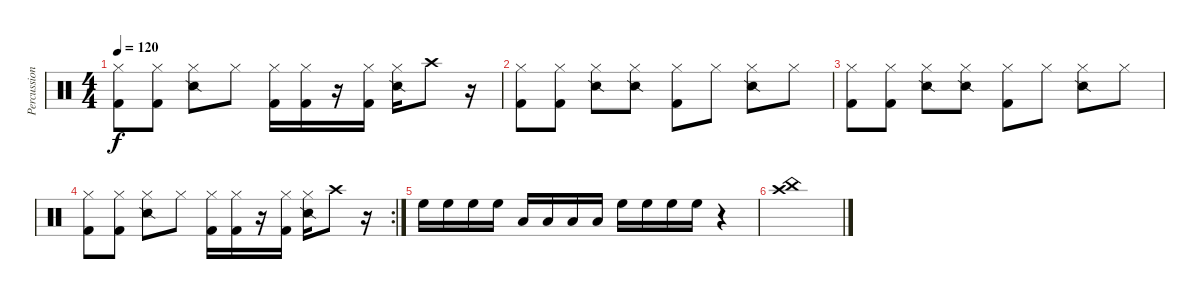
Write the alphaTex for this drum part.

\track ("Percussion" "Percussion") {instrument percussion}
\staff {score}
\articulation defaults
\ts (4 4)
\tempo 120
\clef neutral
\ks c
("Hi-Hat (closed)" "Kick (hit) 2").8{dy f} ("Hi-Hat (closed)" "Kick (hit) 2").8 ("Hi-Hat (closed)" "Snare (side stick) 2").8 "Hi-Hat (closed)".8 ("Hi-Hat (closed)" "Kick (hit) 2").16 ("Hi-Hat (closed)" "Kick (hit) 2").16 r.16 ("Hi-Hat (closed)" "Kick (hit) 2").16 ("Hi-Hat (closed)" "Snare (side stick) 2").16 "Crash high (hit)".8 r.16 |
("Hi-Hat (closed)" "Kick (hit) 2").8 ("Hi-Hat (closed)" "Kick (hit) 2").8 ("Hi-Hat (closed)" "Snare (side stick) 2").8 ("Hi-Hat (closed)" "Snare (side stick) 2").8 ("Hi-Hat (closed)" "Kick (hit) 2").8 "Hi-Hat (closed)".8 ("Hi-Hat (closed)" "Snare (side stick) 2").8 "Hi-Hat (closed)".8 |
("Hi-Hat (closed)" "Kick (hit) 2").8 ("Hi-Hat (closed)" "Kick (hit) 2").8 ("Hi-Hat (closed)" "Snare (side stick) 2").8 ("Hi-Hat (closed)" "Snare (side stick) 2").8 ("Hi-Hat (closed)" "Kick (hit) 2").8 "Hi-Hat (closed)".8 ("Hi-Hat (closed)" "Snare (side stick) 2").8 "Hi-Hat (closed)".8 |
\rc 2
("Hi-Hat (closed)" "Kick (hit) 2").8 ("Hi-Hat (closed)" "Kick (hit) 2").8 ("Hi-Hat (closed)" "Snare (side stick) 2").8 "Hi-Hat (closed)".8 ("Hi-Hat (closed)" "Kick (hit) 2").16 ("Hi-Hat (closed)" "Kick (hit) 2").16 r.16 ("Hi-Hat (closed)" "Kick (hit) 2").16 ("Hi-Hat (closed)" "Snare (side stick) 2").16 "Crash high (hit)".8 r.16 |
"High Floor Tom (hit)".16 "High Floor Tom (hit)".16 "High Floor Tom (hit)".16 "High Floor Tom (hit)".16 "Low Tom (hit)".16 "Low Tom (hit)".16 "Low Tom (hit)".16 "Low Tom (hit)".16 "High Floor Tom (hit)".16 "High Floor Tom (hit)".16 "High Floor Tom (hit)".16 "High Floor Tom (hit)".16 r.4 |
("China (hit)" "Crash high (hit)").1
